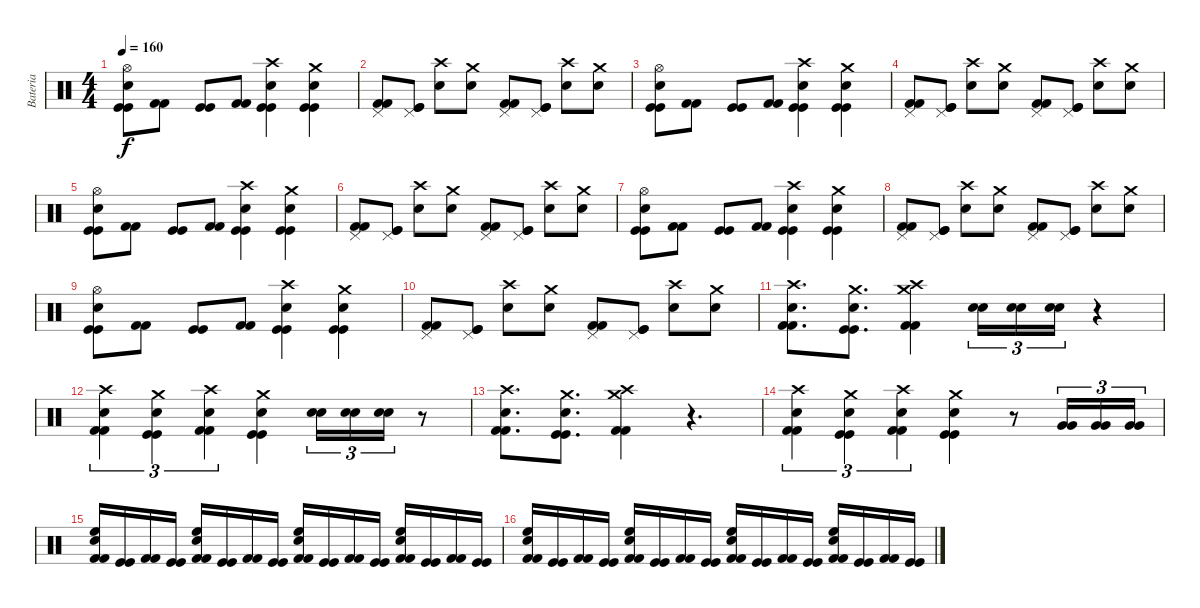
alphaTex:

\track ("Bateria" "Bateria") {instrument percussion}
\staff {score}
\articulation defaults
\ts (4 4)
\tempo 160
\clef neutral
\ks c
("Kick (hit)" "Kick (hit)" "Snare (hit) 2" "Hi-Hat (open)").8{dy f} ("Kick (hit) 2" "Kick (hit) 2").8 ("Kick (hit)" "Kick (hit)").8 ("Kick (hit) 2" "Kick (hit) 2").8 ("Kick (hit)" "Kick (hit)" "Snare (hit) 2" "Crash high (hit)").4 ("Kick (hit)" "Kick (hit)" "Snare (hit) 2" "Crash medium (hit)").4 |
("Kick (hit) 2" "Kick (hit) 2" "Pedal Hi-Hat (hit)").8 ("Kick (hit)" "Kick (hit)" "Pedal Hi-Hat (hit)").8 ("Snare (hit) 2" "Crash high (hit)").8 ("Snare (hit) 2" "Crash medium (hit)").8 ("Kick (hit) 2" "Kick (hit) 2" "Pedal Hi-Hat (hit)").8 ("Kick (hit)" "Kick (hit)" "Pedal Hi-Hat (hit)").8 ("Snare (hit) 2" "Crash high (hit)").8 ("Snare (hit) 2" "Crash medium (hit)").8 |
("Kick (hit)" "Kick (hit)" "Snare (hit) 2" "Hi-Hat (open)").8 ("Kick (hit) 2" "Kick (hit) 2").8 ("Kick (hit)" "Kick (hit)").8 ("Kick (hit) 2" "Kick (hit) 2").8 ("Kick (hit)" "Kick (hit)" "Snare (hit) 2" "Crash high (hit)").4 ("Kick (hit)" "Kick (hit)" "Snare (hit) 2" "Crash medium (hit)").4 |
("Kick (hit) 2" "Kick (hit) 2" "Pedal Hi-Hat (hit)").8 ("Kick (hit)" "Kick (hit)" "Pedal Hi-Hat (hit)").8 ("Snare (hit) 2" "Crash high (hit)").8 ("Snare (hit) 2" "Crash medium (hit)").8 ("Kick (hit) 2" "Kick (hit) 2" "Pedal Hi-Hat (hit)").8 ("Kick (hit)" "Kick (hit)" "Pedal Hi-Hat (hit)").8 ("Snare (hit) 2" "Crash high (hit)").8 ("Snare (hit) 2" "Crash medium (hit)").8 |
("Kick (hit)" "Kick (hit)" "Snare (hit) 2" "Hi-Hat (open)").8 ("Kick (hit) 2" "Kick (hit) 2").8 ("Kick (hit)" "Kick (hit)").8 ("Kick (hit) 2" "Kick (hit) 2").8 ("Kick (hit)" "Kick (hit)" "Snare (hit) 2" "Crash high (hit)").4 ("Kick (hit)" "Kick (hit)" "Snare (hit) 2" "Crash medium (hit)").4 |
("Kick (hit) 2" "Kick (hit) 2" "Pedal Hi-Hat (hit)").8 ("Kick (hit)" "Kick (hit)" "Pedal Hi-Hat (hit)").8 ("Snare (hit) 2" "Crash high (hit)").8 ("Snare (hit) 2" "Crash medium (hit)").8 ("Kick (hit) 2" "Kick (hit) 2" "Pedal Hi-Hat (hit)").8 ("Kick (hit)" "Kick (hit)" "Pedal Hi-Hat (hit)").8 ("Snare (hit) 2" "Crash high (hit)").8 ("Snare (hit) 2" "Crash medium (hit)").8 |
("Kick (hit)" "Kick (hit)" "Snare (hit) 2" "Hi-Hat (open)").8 ("Kick (hit) 2" "Kick (hit) 2").8 ("Kick (hit)" "Kick (hit)").8 ("Kick (hit) 2" "Kick (hit) 2").8 ("Kick (hit)" "Kick (hit)" "Snare (hit) 2" "Crash high (hit)").4 ("Kick (hit)" "Kick (hit)" "Snare (hit) 2" "Crash medium (hit)").4 |
("Kick (hit) 2" "Kick (hit) 2" "Pedal Hi-Hat (hit)").8 ("Kick (hit)" "Kick (hit)" "Pedal Hi-Hat (hit)").8 ("Snare (hit) 2" "Crash high (hit)").8 ("Snare (hit) 2" "Crash medium (hit)").8 ("Kick (hit) 2" "Kick (hit) 2" "Pedal Hi-Hat (hit)").8 ("Kick (hit)" "Kick (hit)" "Pedal Hi-Hat (hit)").8 ("Snare (hit) 2" "Crash high (hit)").8 ("Snare (hit) 2" "Crash medium (hit)").8 |
("Kick (hit)" "Kick (hit)" "Snare (hit) 2" "Hi-Hat (open)").8 ("Kick (hit) 2" "Kick (hit) 2").8 ("Kick (hit)" "Kick (hit)").8 ("Kick (hit) 2" "Kick (hit) 2").8 ("Kick (hit)" "Kick (hit)" "Snare (hit) 2" "Crash high (hit)").4 ("Kick (hit)" "Kick (hit)" "Snare (hit) 2" "Crash medium (hit)").4 |
("Kick (hit) 2" "Kick (hit) 2" "Pedal Hi-Hat (hit)").8 ("Kick (hit)" "Kick (hit)" "Pedal Hi-Hat (hit)").8 ("Snare (hit) 2" "Crash high (hit)").8 ("Snare (hit) 2" "Crash medium (hit)").8 ("Kick (hit) 2" "Kick (hit) 2" "Pedal Hi-Hat (hit)").8 ("Kick (hit)" "Kick (hit)" "Pedal Hi-Hat (hit)").8 ("Snare (hit) 2" "Crash high (hit)").8 ("Snare (hit) 2" "Crash medium (hit)").8 |
("Kick (hit) 2" "Kick (hit) 2" "Snare (hit) 2" "Crash high (hit)").8{d} ("Kick (hit)" "Kick (hit)" "Snare (hit) 2" "Crash medium (hit)").8{d} ("Kick (hit) 2" "Kick (hit) 2" "Crash medium (hit)" "Crash high (hit)").4 ("Snare (hit) 2" "Snare (hit) 2").16{tu (3 2)} ("Snare (hit) 2" "Snare (hit) 2").16{tu (3 2)} ("Snare (hit) 2" "Snare (hit) 2").16{tu (3 2)} r.4 |
("Kick (hit) 2" "Kick (hit) 2" "Snare (hit) 2" "Crash high (hit)").4{tu (3 2)} ("Kick (hit)" "Kick (hit)" "Snare (hit) 2" "Crash medium (hit)").4{tu (3 2)} ("Kick (hit) 2" "Kick (hit) 2" "Snare (hit) 2" "Crash high (hit)").4{tu (3 2)} ("Kick (hit)" "Kick (hit)" "Snare (hit) 2" "Crash medium (hit)").4 ("Snare (hit) 2" "Snare (hit) 2").16{tu (3 2)} ("Snare (hit) 2" "Snare (hit) 2").16{tu (3 2)} ("Snare (hit) 2" "Snare (hit) 2").16{tu (3 2)} r.8 |
("Kick (hit) 2" "Kick (hit) 2" "Snare (hit) 2" "Crash high (hit)").8{d} ("Kick (hit)" "Kick (hit)" "Snare (hit) 2" "Crash medium (hit)").8{d} ("Kick (hit) 2" "Kick (hit) 2" "Crash medium (hit)" "Crash high (hit)").4 r.4{d} |
("Kick (hit) 2" "Kick (hit) 2" "Snare (hit) 2" "Crash high (hit)").4{tu (3 2)} ("Kick (hit)" "Kick (hit)" "Snare (hit) 2" "Crash medium (hit)").4{tu (3 2)} ("Kick (hit) 2" "Kick (hit) 2" "Snare (hit) 2" "Crash high (hit)").4{tu (3 2)} ("Kick (hit)" "Kick (hit)" "Snare (hit) 2" "Crash medium (hit)").4 r.8 ("Very Low Tom (hit)" "Very Low Tom (hit)").16{tu (3 2)} ("Very Low Tom (hit)" "Very Low Tom (hit)").16{tu (3 2)} ("Very Low Tom (hit)" "Very Low Tom (hit)").16{tu (3 2)} |
("Kick (hit) 2" "Kick (hit) 2" "Snare (hit) 2" "High Floor Tom (hit)").16 ("Kick (hit)" "Kick (hit)").16 ("Kick (hit) 2" "Kick (hit) 2").16 ("Kick (hit)" "Kick (hit)").16 ("Kick (hit) 2" "Kick (hit) 2" "Snare (hit) 2" "High Floor Tom (hit)").16 ("Kick (hit)" "Kick (hit)").16 ("Kick (hit) 2" "Kick (hit) 2").16 ("Kick (hit)" "Kick (hit)").16 ("Kick (hit) 2" "Kick (hit) 2" "Snare (hit) 2" "High Floor Tom (hit)").16 ("Kick (hit)" "Kick (hit)").16 ("Kick (hit) 2" "Kick (hit) 2").16 ("Kick (hit)" "Kick (hit)").16 ("Kick (hit) 2" "Kick (hit) 2" "Snare (hit) 2" "High Floor Tom (hit)").16 ("Kick (hit)" "Kick (hit)").16 ("Kick (hit) 2" "Kick (hit) 2").16 ("Kick (hit)" "Kick (hit)").16 |
("Kick (hit) 2" "Kick (hit) 2" "Snare (hit) 2" "High Floor Tom (hit)").16 ("Kick (hit)" "Kick (hit)").16 ("Kick (hit) 2" "Kick (hit) 2").16 ("Kick (hit)" "Kick (hit)").16 ("Kick (hit) 2" "Kick (hit) 2" "Snare (hit) 2" "High Floor Tom (hit)").16 ("Kick (hit)" "Kick (hit)").16 ("Kick (hit) 2" "Kick (hit) 2").16 ("Kick (hit)" "Kick (hit)").16 ("Kick (hit) 2" "Kick (hit) 2" "Snare (hit) 2" "High Floor Tom (hit)").16 ("Kick (hit)" "Kick (hit)").16 ("Kick (hit) 2" "Kick (hit) 2").16 ("Kick (hit)" "Kick (hit)").16 ("Kick (hit) 2" "Kick (hit) 2" "Snare (hit) 2" "High Floor Tom (hit)").16 ("Kick (hit)" "Kick (hit)").16 ("Kick (hit) 2" "Kick (hit) 2").16 ("Kick (hit)" "Kick (hit)").16
